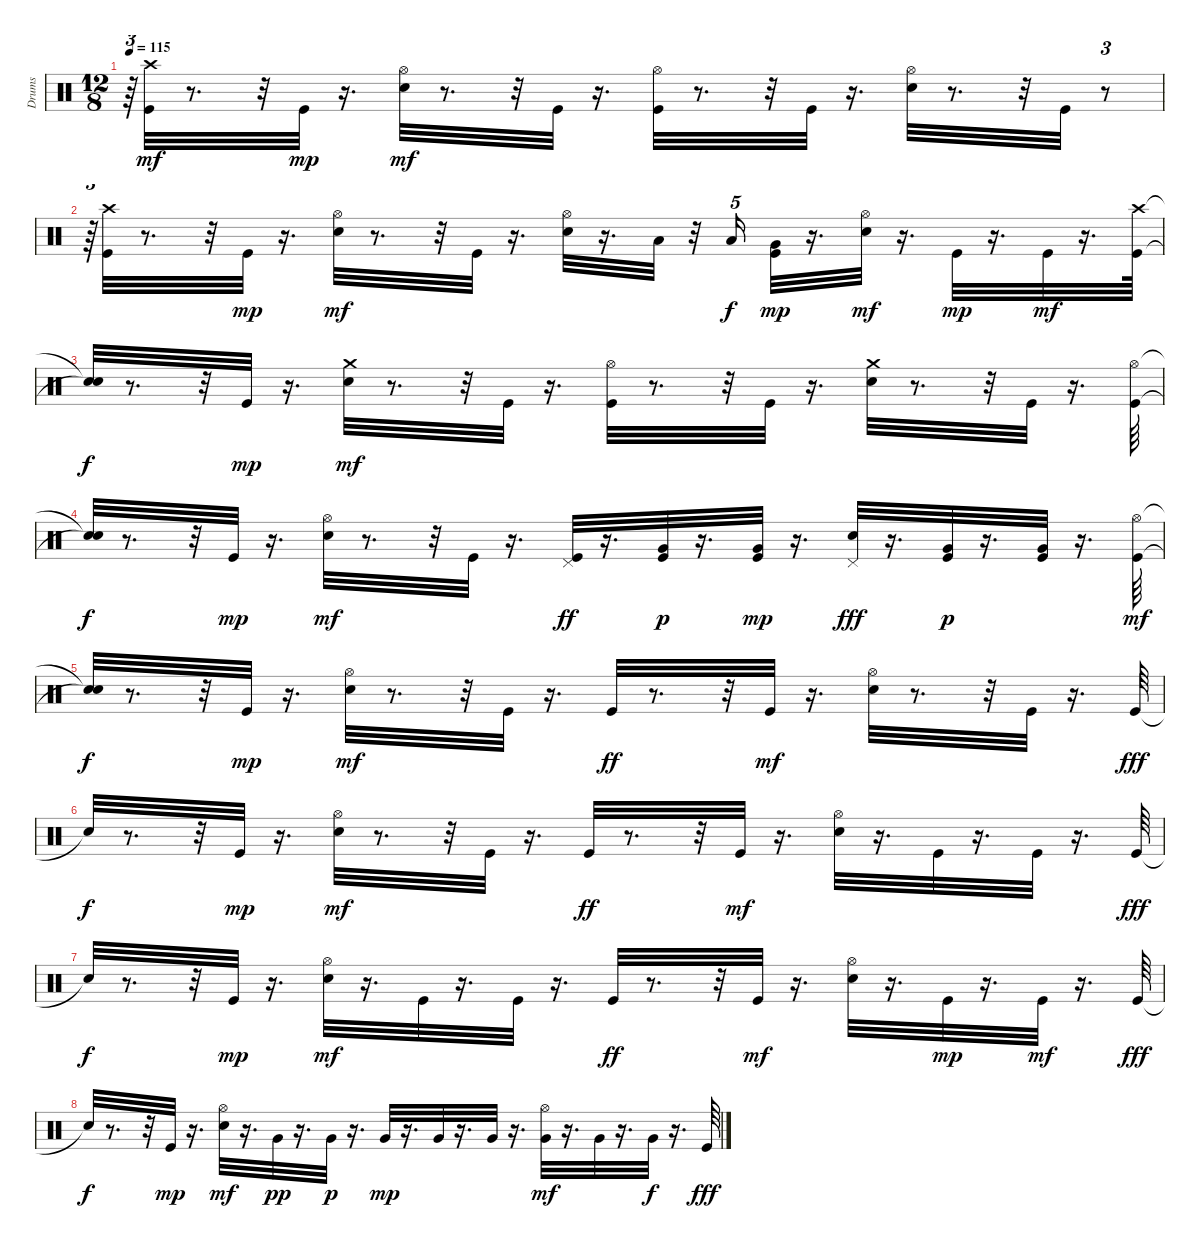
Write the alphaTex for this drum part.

\track ("Drums" "Drums") {instrument percussion}
\staff {score}
\articulation defaults
\ts (12 8)
\tempo 115
\clef neutral
\ks c
r.64{tu (3 2) dy mf} ("Kick (hit)" "Crash high (hit)").32 r.8{d} r.32 "Kick (hit)".32{dy mp} r.16{d} ("Electric Snare (hit)" "Hi-Hat (open)").32{dy mf} r.8{d} r.32 "Kick (hit)".32 r.16{d} ("Kick (hit)" "Hi-Hat (open)").32 r.8{d} r.32 "Kick (hit)".32 r.16{d} ("Electric Snare (hit)" "Hi-Hat (open)").32 r.8{d} r.32 "Kick (hit)".32 r.8{tu (3 2)} |
r.64{tu (3 2)} ("Kick (hit)" "Crash high (hit)").32 r.8{d} r.32 "Kick (hit)".32{dy mp} r.16{d} ("Electric Snare (hit)" "Hi-Hat (open)").32{dy mf} r.8{d} r.32 "Kick (hit)".32 r.16{d} ("Electric Snare (hit)" "Hi-Hat (open)").32 r.16{d} "Low Floor Tom (hit)".32 r.32 "Low Tom (hit)".16{tu (5 4) dy f} ("Kick (hit)" "Very Low Tom (hit)").32{dy mp} r.16{d} ("Electric Snare (hit)" "Hi-Hat (open)").32{dy mf} r.16{d} "Kick (hit)".32{dy mp} r.16{d} "Kick (hit)".32{dy mf} r.16{d} ("Kick (hit)" "Crash high (hit)").64 |
("Snare (hit)"{t} "Snare (hit)"{t}).32{dy f} r.8{d} r.32 "Kick (hit)".32{dy mp} r.16{d} ("Electric Snare (hit)" "Crash medium (hit)").32{dy mf} r.8{d} r.32 "Kick (hit)".32 r.16{d} ("Kick (hit)" "Hi-Hat (open)").32 r.8{d} r.32 "Kick (hit)".32 r.16{d} ("Electric Snare (hit)" "Crash medium (hit)").32 r.8{d} r.32 "Kick (hit)".32 r.16{d} ("Kick (hit)" "Hi-Hat (open)").64 |
("Snare (hit)"{t} "Snare (hit)"{t}).32{dy f} r.8{d} r.32 "Kick (hit)".32{dy mp} r.16{d} ("Electric Snare (hit)" "Hi-Hat (open)").32{dy mf} r.8{d} r.32 "Kick (hit)".32 r.16{d} ("Kick (hit)" "Pedal Hi-Hat (hit)").32{dy ff} r.16{d} ("Kick (hit)" "Very Low Tom (hit)").32{dy p} r.16{d} ("Kick (hit)" "Very Low Tom (hit)").32{dy mp} r.16{d} ("Electric Snare (hit)" "Pedal Hi-Hat (hit)").32{dy fff} r.16{d} ("Kick (hit)" "Very Low Tom (hit)").32{dy p} r.16{d} ("Kick (hit)" "Very Low Tom (hit)").32 r.16{d} ("Kick (hit)" "Hi-Hat (open)").64{dy mf} |
("Snare (hit)"{t} "Snare (hit)"{t}).32{dy f} r.8{d} r.32 "Kick (hit)".32{dy mp} r.16{d} ("Electric Snare (hit)" "Hi-Hat (open)").32{dy mf} r.8{d} r.32 "Kick (hit)".32 r.16{d} "Kick (hit)".32{dy ff} r.8{d} r.32 "Kick (hit)".32{dy mf} r.16{d} ("Electric Snare (hit)" "Hi-Hat (open)").32 r.8{d} r.32 "Kick (hit)".32 r.16{d} "Kick (hit)".64{dy fff} |
"Snare (hit)"{t}.32{dy f} r.8{d} r.32 "Kick (hit)".32{dy mp} r.16{d} ("Electric Snare (hit)" "Hi-Hat (open)").32{dy mf} r.8{d} r.32 "Kick (hit)".32 r.16{d} "Kick (hit)".32{dy ff} r.8{d} r.32 "Kick (hit)".32{dy mf} r.16{d} ("Electric Snare (hit)" "Hi-Hat (open)").32 r.16{d} "Kick (hit)".32 r.16{d} "Kick (hit)".32 r.16{d} "Kick (hit)".64{dy fff} |
"Snare (hit)"{t}.32{dy f} r.8{d} r.32 "Kick (hit)".32{dy mp} r.16{d} ("Electric Snare (hit)" "Hi-Hat (open)").32{dy mf} r.16{d} "Kick (hit)".32 r.16{d} "Kick (hit)".32 r.16{d} "Kick (hit)".32{dy ff} r.8{d} r.32 "Kick (hit)".32{dy mf} r.16{d} ("Electric Snare (hit)" "Hi-Hat (open)").32 r.16{d} "Kick (hit)".32{dy mp} r.16{d} "Kick (hit)".32{dy mf} r.16{d} "Kick (hit)".64{dy fff} |
"Snare (hit)"{t}.32{dy f} r.8{d} r.32 "Kick (hit)".32{dy mp} r.16{d} ("Electric Snare (hit)" "Hi-Hat (open)").32{dy mf} r.16{d} "Very Low Tom (hit)".32{dy pp} r.16{d} "Very Low Tom (hit)".32{dy p} r.16{d} "Very Low Tom (hit)".32{dy mp} r.16{d} "Very Low Tom (hit)".32 r.16{d} "Very Low Tom (hit)".32 r.16{d} ("Very Low Tom (hit)" "Hi-Hat (open)").32{dy mf} r.16{d} "Very Low Tom (hit)".32 r.16{d} "Very Low Tom (hit)".32{dy f} r.16{d} "Kick (hit)".64{dy fff}
